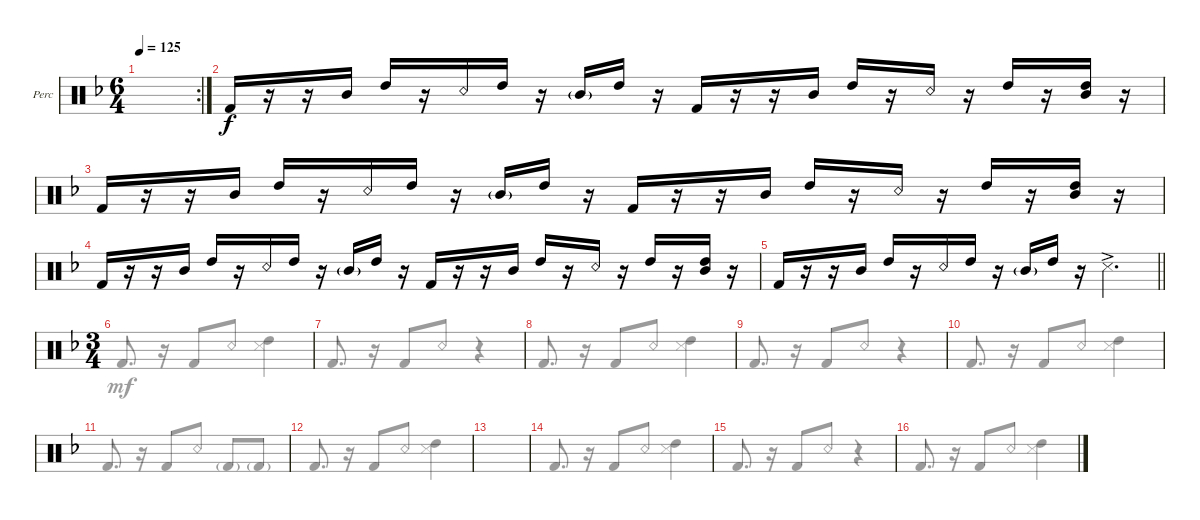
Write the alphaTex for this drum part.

\defaultSystemsLayout 4
\bracketExtendMode groupsimilarinstruments
\firstSystemTrackNameOrientation horizontal
\otherSystemsTrackNameOrientation horizontal
\track ("Body Percussion" "Perc") {instrument percussion}
\staff {score}
\articulation defaults
\voice
\rc 2
\ts (6 4)
\tempo 125
\clef neutral
\ks dminor
|
"Kick (hit) 2"{acc forcenatural}.16{beam Up} r.16{beam Up} r.16{beam Up} "Mid Tom (hit)"{acc forcenatural}.16{beam Up} "High Tom (hit)"{acc forcenatural}.16{beam Up} r.16{beam Up} "Snare (rim shot)"{acc forcenatural}.16{beam Up} "High Tom (hit)"{acc forcenatural}.16{beam Up} r.16{beam Up} "Mid Tom (hit)"{g acc forcenatural}.16{beam Up} "High Tom (hit)"{acc forcenatural}.16{beam Up} r.16{beam Up} "Kick (hit) 2"{acc forcenatural}.16{beam Up} r.16{beam Up} r.16{beam Up} "Mid Tom (hit)"{acc forcenatural}.16{beam Up} "High Tom (hit)"{acc forcenatural}.16{beam Up} r.16{beam Up} "Snare (rim shot)"{acc forcenatural}.16{beam Up} r.16{beam Up} "High Tom (hit)"{acc forcenatural}.16{beam Up} r.16{beam Up} ("High Tom (hit)"{acc forcenatural} "Mid Tom (hit)"{acc forcenatural}).16{beam Up} r.16{beam Up} |
\scale
0.60415 "Kick (hit) 2"{acc forcenatural}.16{beam Up} r.16{beam Up} r.16{beam Up} "Mid Tom (hit)"{acc forcenatural}.16{beam Up} "High Tom (hit)"{acc forcenatural}.16{beam Up} r.16{beam Up} "Snare (rim shot)"{acc forcenatural}.16{beam Up} "High Tom (hit)"{acc forcenatural}.16{beam Up} r.16{beam Up} "Mid Tom (hit)"{g acc forcenatural}.16{beam Up} "High Tom (hit)"{acc forcenatural}.16{beam Up} r.16{beam Up} "Kick (hit) 2"{acc forcenatural}.16{beam Up} r.16{beam Up} r.16{beam Up} "Mid Tom (hit)"{acc forcenatural}.16{beam Up} "High Tom (hit)"{acc forcenatural}.16{beam Up} r.16{beam Up} "Snare (rim shot)"{acc forcenatural}.16{beam Up} r.16{beam Up} "High Tom (hit)"{acc forcenatural}.16{beam Up} r.16{beam Up} ("High Tom (hit)"{acc forcenatural} "Mid Tom (hit)"{acc forcenatural}).16{beam Up} r.16{beam Up} |
\scale
0.395823 "Kick (hit) 2"{acc forcenatural}.16{beam Up} r.16{beam Up} r.16{beam Up} "Mid Tom (hit)"{acc forcenatural}.16{beam Up} "High Tom (hit)"{acc forcenatural}.16{beam Up} r.16{beam Up} "Snare (rim shot)"{acc forcenatural}.16{beam Up} "High Tom (hit)"{acc forcenatural}.16{beam Up} r.16{beam Up} "Mid Tom (hit)"{g acc forcenatural}.16{beam Up} "High Tom (hit)"{acc forcenatural}.16{beam Up} r.16{beam Up} "Kick (hit) 2"{acc forcenatural}.16{beam Up} r.16{beam Up} r.16{beam Up} "Mid Tom (hit)"{acc forcenatural}.16{beam Up} "High Tom (hit)"{acc forcenatural}.16{beam Up} r.16{beam Up} "Snare (rim shot)"{acc forcenatural}.16{beam Up} r.16{beam Up} "High Tom (hit)"{acc forcenatural}.16{beam Up} r.16{beam Up} ("High Tom (hit)"{acc forcenatural} "Mid Tom (hit)"{acc forcenatural}).16{beam Up} r.16{beam Up} |
\scale
0.611649
\barLineRight lightlight "Kick (hit) 2"{acc forcenatural}.16{beam Up}
r.16{beam Up} r.16{beam Up} "Mid Tom (hit)"{acc forcenatural}.16{beam Up} "High Tom (hit)"{acc forcenatural}.16{beam Up} r.16{beam Up} "Snare (rim shot)"{acc forcenatural}.16{beam Up} "High Tom (hit)"{acc forcenatural}.16{beam Up} r.16{beam Up} "Mid Tom (hit)"{g acc forcenatural}.16{beam Up} "High Tom (hit)"{acc forcenatural}.16{beam Up} r.16{beam Up} "Snare (side stick) 3"{ac acc forcenatural}.2{d beam Down} |
\ts (3 4)
\scale
0.388261 |
|
|
|
|
|
|
|
|
|
\voice
\clef neutral
\ottava regular
\simile none
\ks dminor
|
|
|
|
\barLineRight lightlight
|
"Kick (hit) 2"{acc forcenatural}.8{d dy mf beam Up} r.16{beam Up} "Kick (hit) 2"{acc forcenatural}.8{beam Up} "Snare (rim shot)"{acc forcenatural}.8{beam Up} ("High Tom (hit)"{acc forcenatural} "Snare (side stick) 3"{acc forcenatural}).4{beam Down} |
"Kick (hit) 2"{acc forcenatural}.8{d beam Up} r.16{beam Up} "Kick (hit) 2"{acc forcenatural}.8{beam Up} "Snare (rim shot)"{acc forcenatural}.8{beam Up} r.4{beam Up} |
"Kick (hit) 2"{acc forcenatural}.8{d beam Up} r.16{beam Up} "Kick (hit) 2"{acc forcenatural}.8{beam Up} "Snare (rim shot)"{acc forcenatural}.8{beam Up} ("High Tom (hit)"{acc forcenatural} "Snare (side stick) 3"{acc forcenatural}).4{beam Down} |
"Kick (hit) 2"{acc forcenatural}.8{d beam Up} r.16{beam Up} "Kick (hit) 2"{acc forcenatural}.8{beam Up} "Snare (rim shot)"{acc forcenatural}.8{beam Up} r.4{beam Up} |
"Kick (hit) 2"{acc forcenatural}.8{d beam Up} r.16{beam Up} "Kick (hit) 2"{acc forcenatural}.8{beam Up} "Snare (rim shot)"{acc forcenatural}.8{beam Up} ("High Tom (hit)"{acc forcenatural} "Snare (side stick) 3"{acc forcenatural}).4{beam Down} |
"Kick (hit) 2"{acc forcenatural}.8{d beam Up} r.16{beam Up} "Kick (hit) 2"{acc forcenatural}.8{beam Up} "Snare (rim shot)"{acc forcenatural}.8{beam Up} "Kick (hit) 2"{g acc forcenatural}.8{beam Up} "Kick (hit) 2"{g acc forcenatural}.8{beam Up} |
"Kick (hit) 2"{acc forcenatural}.8{d beam Up} r.16{beam Up} "Kick (hit) 2"{acc forcenatural}.8{beam Up} "Snare (rim shot)"{acc forcenatural}.8{beam Up} ("High Tom (hit)"{acc forcenatural} "Snare (side stick) 3"{acc forcenatural}).4{beam Down} |
|
"Kick (hit) 2"{acc forcenatural}.8{d beam Up} r.16{beam Up} "Kick (hit) 2"{acc forcenatural}.8{beam Up} "Snare (rim shot)"{acc forcenatural}.8{beam Up} ("High Tom (hit)"{acc forcenatural} "Snare (side stick) 3"{acc forcenatural}).4{beam Down} |
"Kick (hit) 2"{acc forcenatural}.8{d beam Up} r.16{beam Up} "Kick (hit) 2"{acc forcenatural}.8{beam Up} "Snare (rim shot)"{acc forcenatural}.8{beam Up} r.4{beam Up} |
"Kick (hit) 2"{acc forcenatural}.8{d beam Up} r.16{beam Up} "Kick (hit) 2"{acc forcenatural}.8{beam Up} "Snare (rim shot)"{acc forcenatural}.8{beam Up} ("High Tom (hit)"{acc forcenatural} "Snare (side stick) 3"{acc forcenatural}).4{beam Down}
